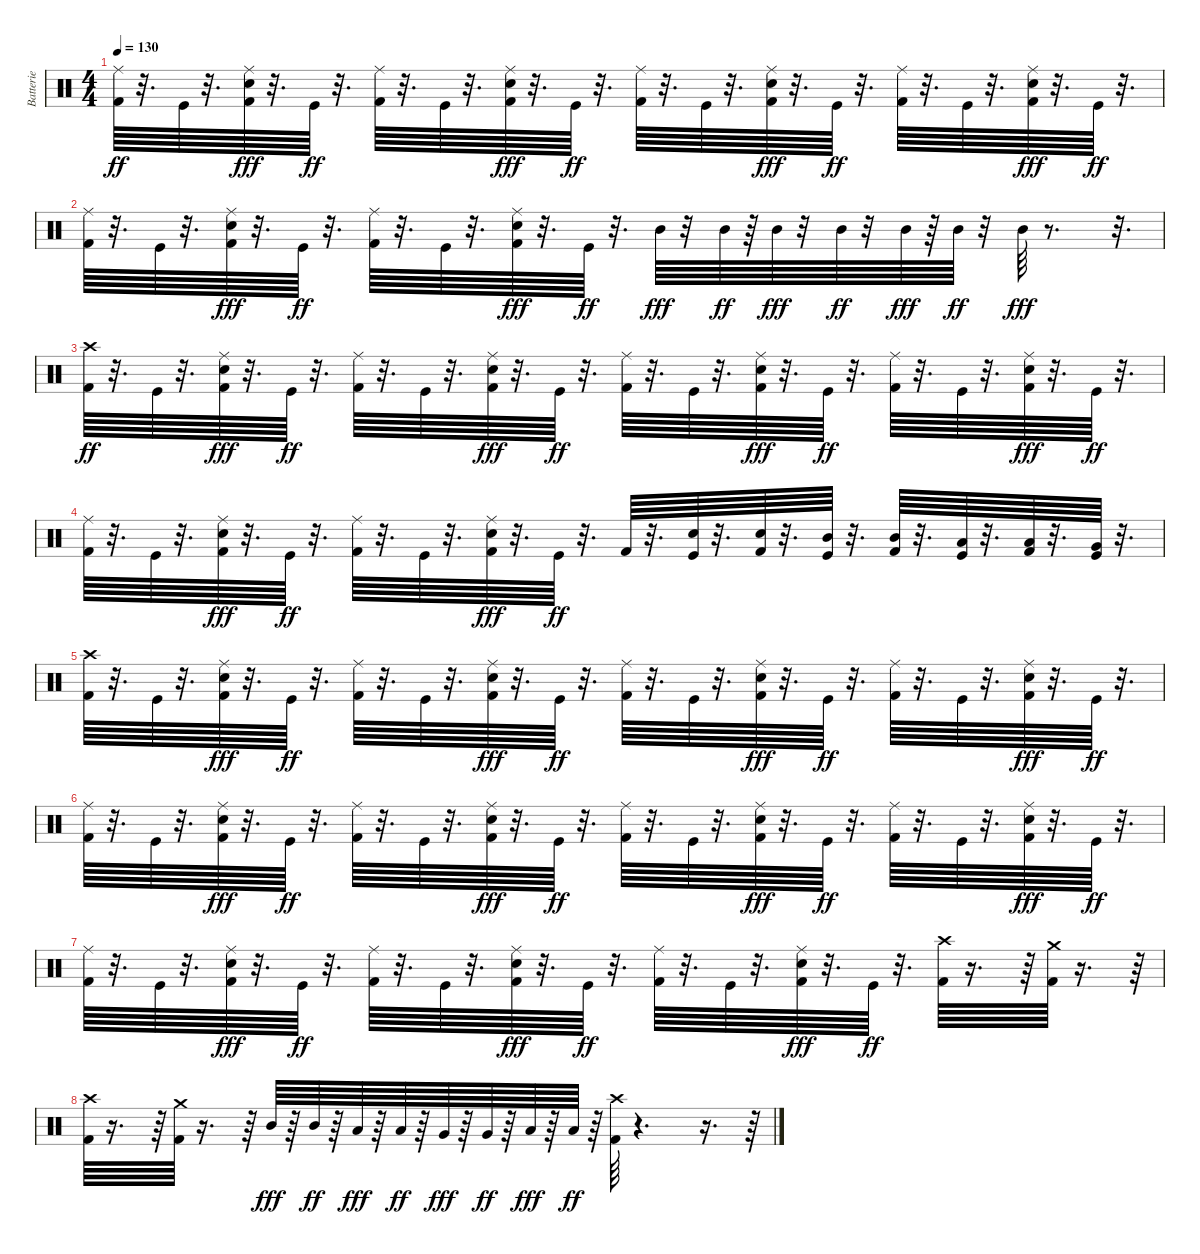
\track ("Batterie" "Batterie") {instrument percussion}
\staff {score}
\articulation defaults
\ts (4 4)
\tempo 130
\clef neutral
\ks c
("Kick (hit) 2" "Ride (middle)").64{dy ff} r.32{d} "Kick (hit)".64 r.32{d} ("Kick (hit) 2" "Snare (hit) 2" "Ride (middle)").64{dy fff} r.32{d} "Kick (hit)".64{dy ff} r.32{d} ("Kick (hit) 2" "Ride (middle)").64 r.32{d} "Kick (hit)".64 r.32{d} ("Kick (hit) 2" "Snare (hit) 2" "Ride (middle)").64{dy fff} r.32{d} "Kick (hit)".64{dy ff} r.32{d} ("Kick (hit) 2" "Ride (middle)").64 r.32{d} "Kick (hit)".64 r.32{d} ("Kick (hit) 2" "Snare (hit) 2" "Ride (middle)").64{dy fff} r.32{d} "Kick (hit)".64{dy ff} r.32{d} ("Kick (hit) 2" "Ride (middle)").64 r.32{d} "Kick (hit)".64 r.32{d} ("Kick (hit) 2" "Snare (hit) 2" "Ride (middle)").64{dy fff} r.32{d} "Kick (hit)".64{dy ff} r.32{d} |
("Kick (hit) 2" "Ride (middle)").64 r.32{d} "Kick (hit)".64 r.32{d} ("Kick (hit) 2" "Snare (hit) 2" "Ride (middle)").64{dy fff} r.32{d} "Kick (hit)".64{dy ff} r.32{d} ("Kick (hit) 2" "Ride (middle)").64 r.32{d} "Kick (hit)".64 r.32{d} ("Kick (hit) 2" "Snare (hit) 2" "Ride (middle)").64{dy fff} r.32{d} "Kick (hit)".64{dy ff} r.32{d} "Mid Tom (hit)".64{dy fff} r.32 "Mid Tom (hit)".64{dy ff} r.64 "Mid Tom (hit)".64{dy fff} r.32 "Mid Tom (hit)".64{dy ff} r.32 "Mid Tom (hit)".64{dy fff} r.64 "Mid Tom (hit)".64{dy ff} r.32 "Mid Tom (hit)".64{dy fff} r.8{d} r.32{d} |
("Crash high (hit)" "Kick (hit) 2").64{dy ff} r.32{d} "Kick (hit)".64 r.32{d} ("Kick (hit) 2" "Snare (hit) 2" "Ride (middle)").64{dy fff} r.32{d} "Kick (hit)".64{dy ff} r.32{d} ("Kick (hit) 2" "Ride (middle)").64 r.32{d} "Kick (hit)".64 r.32{d} ("Kick (hit) 2" "Snare (hit) 2" "Ride (middle)").64{dy fff} r.32{d} "Kick (hit)".64{dy ff} r.32{d} ("Kick (hit) 2" "Ride (middle)").64 r.32{d} "Kick (hit)".64 r.32{d} ("Kick (hit) 2" "Snare (hit) 2" "Ride (middle)").64{dy fff} r.32{d} "Kick (hit)".64{dy ff} r.32{d} ("Kick (hit) 2" "Ride (middle)").64 r.32{d} "Kick (hit)".64 r.32{d} ("Kick (hit) 2" "Snare (hit) 2" "Ride (middle)").64{dy fff} r.32{d} "Kick (hit)".64{dy ff} r.32{d} |
("Kick (hit) 2" "Ride (middle)").64 r.32{d} "Kick (hit)".64 r.32{d} ("Kick (hit) 2" "Snare (hit) 2" "Ride (middle)").64{dy fff} r.32{d} "Kick (hit)".64{dy ff} r.32{d} ("Kick (hit) 2" "Ride (middle)").64 r.32{d} "Kick (hit)".64 r.32{d} ("Kick (hit) 2" "Snare (hit) 2" "Ride (middle)").64{dy fff} r.32{d} "Kick (hit)".64{dy ff} r.32{d} "Kick (hit) 2".64 r.32{d} ("Snare (hit) 2" "Kick (hit)").64 r.32{d} ("Snare (hit) 2" "Kick (hit) 2").64 r.32{d} ("Mid Tom (hit)" "Kick (hit)").64 r.32{d} ("Mid Tom (hit)" "Kick (hit) 2").64 r.32{d} ("Low Tom (hit)" "Kick (hit)").64 r.32{d} ("Low Tom (hit)" "Kick (hit) 2").64 r.32{d} ("Very Low Tom (hit)" "Kick (hit)").64 r.32{d} |
("Kick (hit) 2" "Crash high (hit)").64 r.32{d} "Kick (hit)".64 r.32{d} ("Kick (hit) 2" "Snare (hit) 2" "Ride (middle)").64{dy fff} r.32{d} "Kick (hit)".64{dy ff} r.32{d} ("Kick (hit) 2" "Ride (middle)").64 r.32{d} "Kick (hit)".64 r.32{d} ("Kick (hit) 2" "Snare (hit) 2" "Ride (middle)").64{dy fff} r.32{d} "Kick (hit)".64{dy ff} r.32{d} ("Kick (hit) 2" "Ride (middle)").64 r.32{d} "Kick (hit)".64 r.32{d} ("Kick (hit) 2" "Snare (hit) 2" "Ride (middle)").64{dy fff} r.32{d} "Kick (hit)".64{dy ff} r.32{d} ("Kick (hit) 2" "Ride (middle)").64 r.32{d} "Kick (hit)".64 r.32{d} ("Kick (hit) 2" "Snare (hit) 2" "Ride (middle)").64{dy fff} r.32{d} "Kick (hit)".64{dy ff} r.32{d} |
("Kick (hit) 2" "Ride (middle)").64 r.32{d} "Kick (hit)".64 r.32{d} ("Kick (hit) 2" "Snare (hit) 2" "Ride (middle)").64{dy fff} r.32{d} "Kick (hit)".64{dy ff} r.32{d} ("Kick (hit) 2" "Ride (middle)").64 r.32{d} "Kick (hit)".64 r.32{d} ("Kick (hit) 2" "Snare (hit) 2" "Ride (middle)").64{dy fff} r.32{d} "Kick (hit)".64{dy ff} r.32{d} ("Kick (hit) 2" "Ride (middle)").64 r.32{d} "Kick (hit)".64 r.32{d} ("Kick (hit) 2" "Snare (hit) 2" "Ride (middle)").64{dy fff} r.32{d} "Kick (hit)".64{dy ff} r.32{d} ("Kick (hit) 2" "Ride (middle)").64 r.32{d} "Kick (hit)".64 r.32{d} ("Kick (hit) 2" "Snare (hit) 2" "Ride (middle)").64{dy fff} r.32{d} "Kick (hit)".64{dy ff} r.32{d} |
("Kick (hit) 2" "Ride (middle)").64 r.32{d} "Kick (hit)".64 r.32{d} ("Kick (hit) 2" "Snare (hit) 2" "Ride (middle)").64{dy fff} r.32{d} "Kick (hit)".64{dy ff} r.32{d} ("Kick (hit) 2" "Ride (middle)").64 r.32{d} "Kick (hit)".64 r.32{d} ("Kick (hit) 2" "Snare (hit) 2" "Ride (middle)").64{dy fff} r.32{d} "Kick (hit)".64{dy ff} r.32{d} ("Kick (hit) 2" "Ride (middle)").64 r.32{d} "Kick (hit)".64 r.32{d} ("Kick (hit) 2" "Snare (hit) 2" "Ride (middle)").64{dy fff} r.32{d} "Kick (hit)".64{dy ff} r.32{d} ("Kick (hit) 2" "Crash high (hit)").64 r.16{d} r.64 ("Kick (hit) 2" "Crash medium (hit)").64 r.16{d} r.64 |
("Kick (hit) 2" "Crash high (hit)").64 r.16{d} r.64 ("Kick (hit) 2" "Crash medium (hit)").64 r.16{d} r.64 "Mid Tom (hit)".64{dy fff} r.64 "Mid Tom (hit)".64{dy ff} r.64 "Low Tom (hit)".64{dy fff} r.64 "Low Tom (hit)".64{dy ff} r.64 "Very Low Tom (hit)".64{dy fff} r.64 "Very Low Tom (hit)".64{dy ff} r.64 "Low Floor Tom (hit)".64{dy fff} r.64 "Low Floor Tom (hit)".64{dy ff} r.64 ("Kick (hit) 2" "Crash high (hit)").64 r.4{d} r.16{d} r.64
